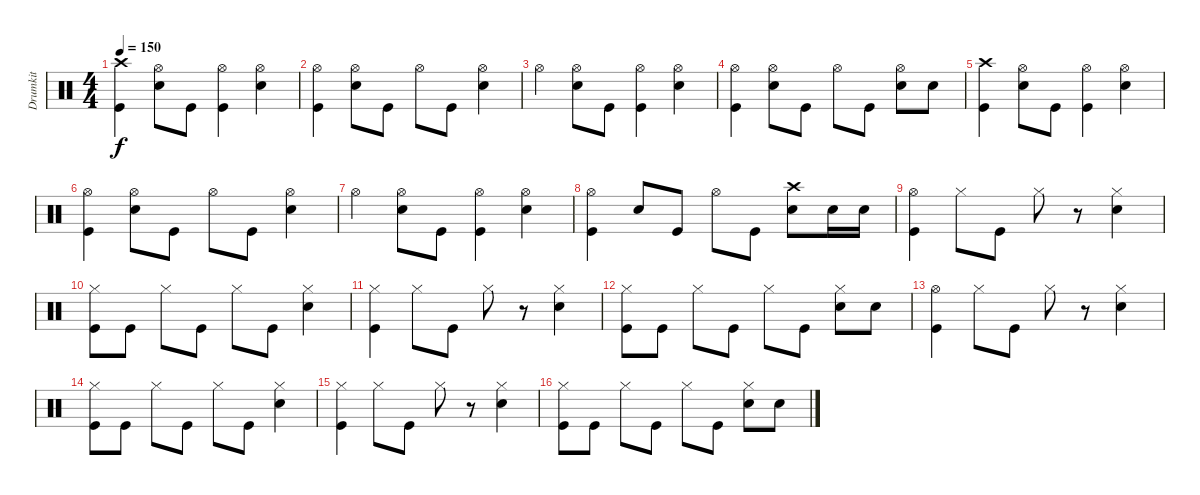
\track ("Drumkit" "Drumkit") {instrument percussion}
\staff {score}
\articulation defaults
\ts (4 4)
\tempo 150
\clef neutral
\ks c
("Crash high (hit)" "Kick (hit)").4{dy f} ("Hi-Hat (open)" "Snare (hit) 2").8 "Kick (hit)".8 ("Hi-Hat (open)" "Kick (hit)").4 ("Hi-Hat (open)" "Snare (hit) 2").4 |
("Hi-Hat (open)" "Kick (hit)").4 ("Hi-Hat (open)" "Snare (hit) 2").8 "Kick (hit)".8 "Hi-Hat (open)".8 "Kick (hit)".8 ("Hi-Hat (open)" "Snare (hit) 2").4 |
"Hi-Hat (open)".4 ("Hi-Hat (open)" "Snare (hit) 2").8 "Kick (hit)".8 ("Hi-Hat (open)" "Kick (hit)").4 ("Hi-Hat (open)" "Snare (hit) 2").4 |
("Hi-Hat (open)" "Kick (hit)").4 ("Hi-Hat (open)" "Snare (hit) 2").8 "Kick (hit)".8 "Hi-Hat (open)".8 "Kick (hit)".8 ("Hi-Hat (open)" "Snare (hit) 2").8 "Snare (hit) 2".8 |
("Crash high (hit)" "Kick (hit)").4 ("Hi-Hat (open)" "Snare (hit) 2").8 "Kick (hit)".8 ("Hi-Hat (open)" "Kick (hit)").4 ("Hi-Hat (open)" "Snare (hit) 2").4 |
("Hi-Hat (open)" "Kick (hit)").4 ("Hi-Hat (open)" "Snare (hit) 2").8 "Kick (hit)".8 "Hi-Hat (open)".8 "Kick (hit)".8 ("Hi-Hat (open)" "Snare (hit) 2").4 |
"Hi-Hat (open)".4 ("Hi-Hat (open)" "Snare (hit) 2").8 "Kick (hit)".8 ("Hi-Hat (open)" "Kick (hit)").4 ("Hi-Hat (open)" "Snare (hit) 2").4 |
("Hi-Hat (open)" "Kick (hit)").4 "Snare (hit) 2".8 "Kick (hit)".8 "Hi-Hat (open)".8 "Kick (hit)".8 ("Crash high (hit)" "Snare (hit) 2").8 "Snare (hit) 2".16 "Snare (hit) 2".16 |
("Hi-Hat (open)" "Kick (hit)").4 "Hi-Hat (closed)".8 "Kick (hit)".8 "Hi-Hat (closed)".8 r.8 ("Hi-Hat (closed)" "Snare (hit) 2").4 |
("Hi-Hat (closed)" "Kick (hit)").8 "Kick (hit)".8 "Hi-Hat (closed)".8 "Kick (hit)".8 "Hi-Hat (closed)".8 "Kick (hit)".8 ("Hi-Hat (closed)" "Snare (hit) 2").4 |
("Hi-Hat (closed)" "Kick (hit)").4 "Hi-Hat (closed)".8 "Kick (hit)".8 "Hi-Hat (closed)".8 r.8 ("Hi-Hat (closed)" "Snare (hit) 2").4 |
("Hi-Hat (closed)" "Kick (hit)").8 "Kick (hit)".8 "Hi-Hat (closed)".8 "Kick (hit)".8 "Hi-Hat (closed)".8 "Kick (hit)".8 ("Hi-Hat (closed)" "Snare (hit) 2").8 "Snare (hit) 2".8 |
("Hi-Hat (open)" "Kick (hit)").4 "Hi-Hat (closed)".8 "Kick (hit)".8 "Hi-Hat (closed)".8 r.8 ("Hi-Hat (closed)" "Snare (hit) 2").4 |
("Hi-Hat (closed)" "Kick (hit)").8 "Kick (hit)".8 "Hi-Hat (closed)".8 "Kick (hit)".8 "Hi-Hat (closed)".8 "Kick (hit)".8 ("Hi-Hat (closed)" "Snare (hit) 2").4 |
("Hi-Hat (closed)" "Kick (hit)").4 "Hi-Hat (closed)".8 "Kick (hit)".8 "Hi-Hat (closed)".8 r.8 ("Hi-Hat (closed)" "Snare (hit) 2").4 |
("Hi-Hat (closed)" "Kick (hit)").8 "Kick (hit)".8 "Hi-Hat (closed)".8 "Kick (hit)".8 "Hi-Hat (closed)".8 "Kick (hit)".8 ("Hi-Hat (closed)" "Snare (hit) 2").8 "Snare (hit) 2".8
